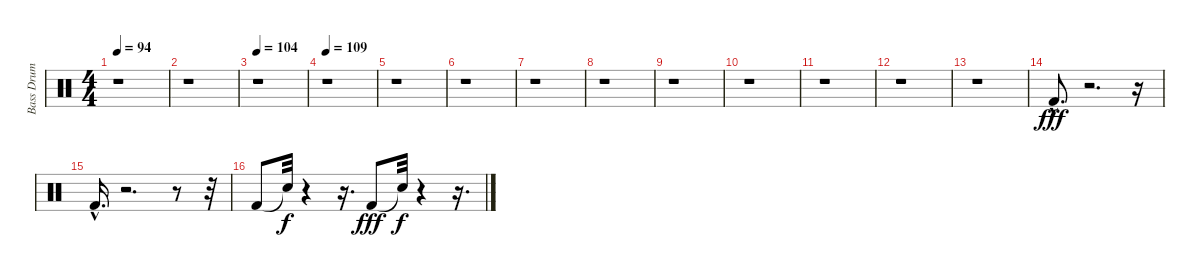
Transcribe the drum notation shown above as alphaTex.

\track ("Bass Drum       " "Bass Drum ") {instrument percussion}
\staff {score}
\articulation defaults
\ts (4 4)
\tempo 94
\clef neutral
\ks c
r.1{dy fff} |
r.1 |
\tempo 104
r.1 |
\tempo 109
r.1 |
r.1 |
r.1 |
r.1 |
r.1 |
r.1 |
r.1 |
r.1 |
r.1 |
r.1 |
"Kick (hit) 2"{hac}.8{d} r.2{d} r.16 |
"Kick (hit) 2"{hac}.16{d} r.2{d} r.8 r.32 |
"Kick (hit) 2".8 "Snare (hit)"{t}.32{dy f} r.4 r.16{d} "Kick (hit) 2".8{dy fff} "Snare (hit)"{t}.32{dy f} r.4 r.16{d}
